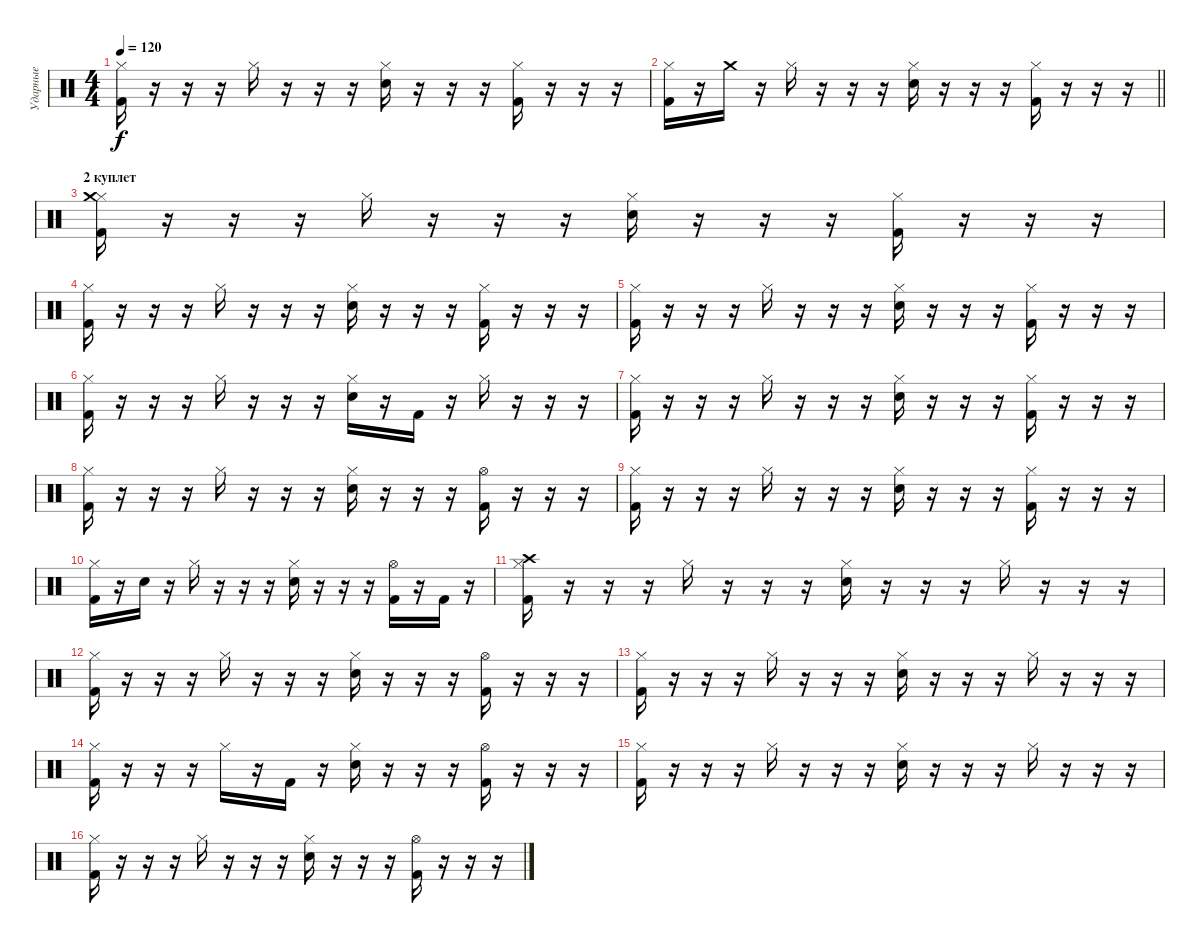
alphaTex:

\track ("Ударные" "Ударные") {instrument percussion}
\staff {score}
\articulation defaults
\ts (4 4)
\tempo 120
\clef neutral
\ks c
("Hi-Hat (closed)" "Kick (hit) 2").16{dy f} r.16 r.16 r.16 "Hi-Hat (closed)".16 r.16 r.16 r.16 ("Hi-Hat (closed)" "Snare (hit) 2").16 r.16 r.16 r.16 ("Hi-Hat (closed)" "Kick (hit) 2").16 r.16 r.16 r.16 |
\barLineRight lightlight
("Hi-Hat (closed)" "Kick (hit) 2").16 r.16 "Crash medium (hit)".16 r.16 "Hi-Hat (closed)".16 r.16 r.16 r.16 ("Hi-Hat (closed)" "Snare (hit) 2").16 r.16 r.16 r.16 ("Hi-Hat (closed)" "Kick (hit) 2").16 r.16 r.16 r.16 |
\section ("" "2 куплет")
("Hi-Hat (closed)" "Kick (hit) 2" "Crash medium (hit)").16 r.16 r.16 r.16 "Hi-Hat (closed)".16 r.16 r.16 r.16 ("Hi-Hat (closed)" "Snare (hit) 2").16 r.16 r.16 r.16 ("Hi-Hat (closed)" "Kick (hit) 2").16 r.16 r.16 r.16 |
("Hi-Hat (closed)" "Kick (hit) 2").16 r.16 r.16 r.16 "Hi-Hat (closed)".16 r.16 r.16 r.16 ("Hi-Hat (closed)" "Snare (hit) 2").16 r.16 r.16 r.16 ("Hi-Hat (closed)" "Kick (hit) 2").16 r.16 r.16 r.16 |
("Hi-Hat (closed)" "Kick (hit) 2").16 r.16 r.16 r.16 "Hi-Hat (closed)".16 r.16 r.16 r.16 ("Hi-Hat (closed)" "Snare (hit) 2").16 r.16 r.16 r.16 ("Hi-Hat (closed)" "Kick (hit) 2").16 r.16 r.16 r.16 |
("Hi-Hat (closed)" "Kick (hit) 2").16 r.16 r.16 r.16 "Hi-Hat (closed)".16 r.16 r.16 r.16 ("Hi-Hat (closed)" "Snare (hit) 2").16 r.16 "Kick (hit) 2".16 r.16 "Hi-Hat (closed)".16 r.16 r.16 r.16 |
("Hi-Hat (closed)" "Kick (hit) 2").16 r.16 r.16 r.16 "Hi-Hat (closed)".16 r.16 r.16 r.16 ("Hi-Hat (closed)" "Snare (hit) 2").16 r.16 r.16 r.16 ("Hi-Hat (closed)" "Kick (hit) 2").16 r.16 r.16 r.16 |
("Hi-Hat (closed)" "Kick (hit) 2").16 r.16 r.16 r.16 "Hi-Hat (closed)".16 r.16 r.16 r.16 ("Hi-Hat (closed)" "Snare (hit) 2").16 r.16 r.16 r.16 ("Hi-Hat (open)" "Kick (hit) 2").16 r.16 r.16 r.16 |
("Hi-Hat (closed)" "Kick (hit) 2").16 r.16 r.16 r.16 "Hi-Hat (closed)".16 r.16 r.16 r.16 ("Hi-Hat (closed)" "Snare (hit) 2").16 r.16 r.16 r.16 ("Hi-Hat (closed)" "Kick (hit) 2").16 r.16 r.16 r.16 |
("Hi-Hat (closed)" "Kick (hit) 2").16 r.16 "Snare (hit) 2".16 r.16 "Hi-Hat (closed)".16 r.16 r.16 r.16 ("Hi-Hat (closed)" "Snare (hit) 2").16 r.16 r.16 r.16 ("Hi-Hat (open)" "Kick (hit) 2").16 r.16 "Kick (hit) 2".16 r.16 |
("Hi-Hat (closed)" "Kick (hit) 2" "Crash high (hit)").16 r.16 r.16 r.16 "Hi-Hat (closed)".16 r.16 r.16 r.16 ("Hi-Hat (closed)" "Snare (hit) 2").16 r.16 r.16 r.16 "Hi-Hat (closed)".16 r.16 r.16 r.16 |
("Hi-Hat (closed)" "Kick (hit) 2").16 r.16 r.16 r.16 "Hi-Hat (closed)".16 r.16 r.16 r.16 ("Hi-Hat (closed)" "Snare (hit) 2").16 r.16 r.16 r.16 ("Hi-Hat (open)" "Kick (hit) 2").16 r.16 r.16 r.16 |
("Hi-Hat (closed)" "Kick (hit) 2").16 r.16 r.16 r.16 "Hi-Hat (closed)".16 r.16 r.16 r.16 ("Hi-Hat (closed)" "Snare (hit) 2").16 r.16 r.16 r.16 "Hi-Hat (closed)".16 r.16 r.16 r.16 |
("Hi-Hat (closed)" "Kick (hit) 2").16 r.16 r.16 r.16 "Hi-Hat (closed)".16 r.16 "Kick (hit) 2".16 r.16 ("Hi-Hat (closed)" "Snare (hit) 2").16 r.16 r.16 r.16 ("Hi-Hat (open)" "Kick (hit) 2").16 r.16 r.16 r.16 |
("Hi-Hat (closed)" "Kick (hit) 2").16 r.16 r.16 r.16 "Hi-Hat (closed)".16 r.16 r.16 r.16 ("Hi-Hat (closed)" "Snare (hit) 2").16 r.16 r.16 r.16 "Hi-Hat (closed)".16 r.16 r.16 r.16 |
("Hi-Hat (closed)" "Kick (hit) 2").16 r.16 r.16 r.16 "Hi-Hat (closed)".16 r.16 r.16 r.16 ("Hi-Hat (closed)" "Snare (hit) 2").16 r.16 r.16 r.16 ("Hi-Hat (open)" "Kick (hit) 2").16 r.16 r.16 r.16
